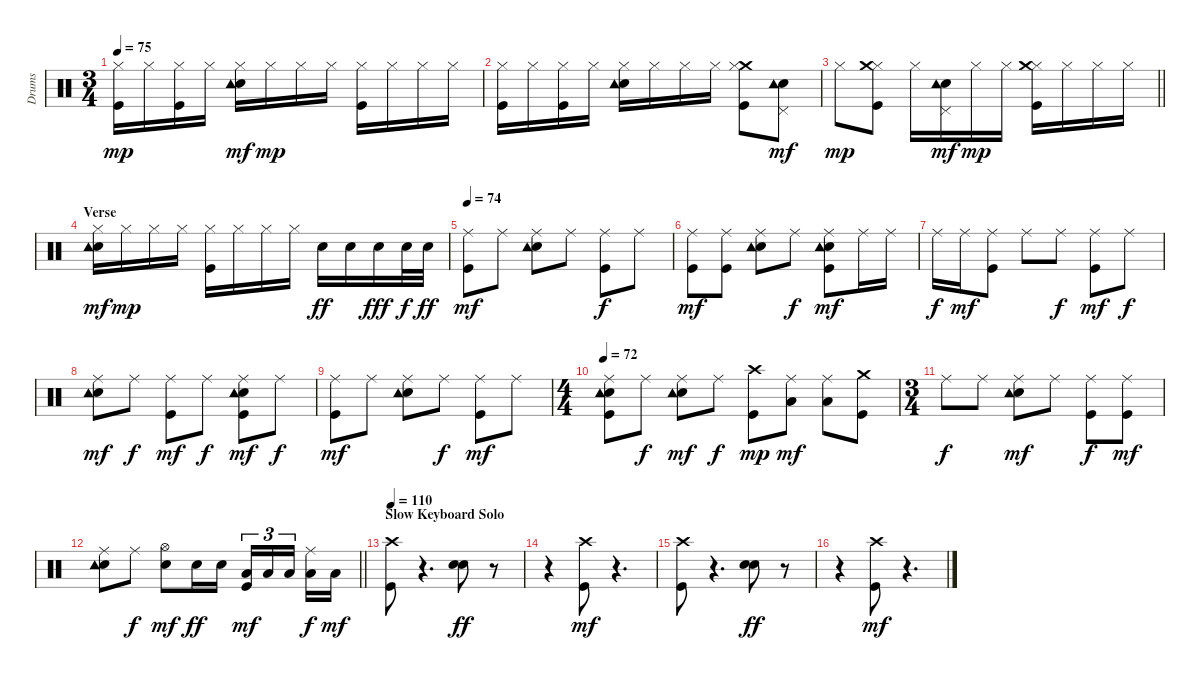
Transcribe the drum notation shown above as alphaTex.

\track ("Drums" "Drums") {instrument percussion}
\staff {score}
\articulation defaults
\ts (3 4)
\tempo 75
\clef neutral
\ks c
("Kick (hit)" "Hi-Hat (closed)").16{dy mp} "Hi-Hat (closed)".16 ("Kick (hit)" "Hi-Hat (closed)").16 "Hi-Hat (closed)".16 ("Electric Snare (hit)" "Hi-Hat (closed)" "Tambourine (hit)").16{dy mf} "Hi-Hat (closed)".16{dy mp} "Hi-Hat (closed)".16 "Hi-Hat (closed)".16 ("Kick (hit)" "Hi-Hat (closed)").16 "Hi-Hat (closed)".16 "Hi-Hat (closed)".16 "Hi-Hat (closed)".16 |
("Kick (hit)" "Hi-Hat (closed)").16 "Hi-Hat (closed)".16 ("Kick (hit)" "Hi-Hat (closed)").16 "Hi-Hat (closed)".16 ("Electric Snare (hit)" "Tambourine (hit)" "Hi-Hat (closed)").16 "Hi-Hat (closed)".16 "Hi-Hat (closed)".16 "Hi-Hat (closed)".16 ("Kick (hit)" "Crash medium (hit)" "Hi-Hat (closed)").8 ("Electric Snare (hit)" "Pedal Hi-Hat (hit)" "Tambourine (hit)").8{dy mf} |
\barLineRight lightlight "Hi-Hat (closed)".8{dy mp}
("Kick (hit)" "Hi-Hat (closed)" "Crash medium (hit)").8 "Hi-Hat (closed)".16 ("Electric Snare (hit)" "Pedal Hi-Hat (hit)" "Tambourine (hit)").16{dy mf} "Hi-Hat (closed)".16{dy mp} "Hi-Hat (closed)".16 ("Kick (hit)" "Hi-Hat (closed)" "Crash medium (hit)").16 "Hi-Hat (closed)".16 "Hi-Hat (closed)".16 "Hi-Hat (closed)".16 |
\section ("" "Verse")
("Electric Snare (hit)" "Hi-Hat (closed)" "Tambourine (hit)").16{dy mf} "Hi-Hat (closed)".16{dy mp} "Hi-Hat (closed)".16 "Hi-Hat (closed)".16 ("Kick (hit)" "Hi-Hat (closed)").16 "Hi-Hat (closed)".16 "Hi-Hat (closed)".16 "Hi-Hat (closed)".16 "Electric Snare (hit)".16{dy ff} "Electric Snare (hit)".16 "Electric Snare (hit)".16{dy fff} "Electric Snare (hit)".32{dy f} "Electric Snare (hit)".32{dy ff} |
\tempo 74
("Kick (hit)" "Ride (middle)").8{dy mf} "Ride (middle)".8 ("Electric Snare (hit)" "Ride (middle)" "Tambourine (hit)").8 "Ride (middle)".8 ("Kick (hit)" "Ride (middle)").8{dy f} "Ride (middle)".8 |
("Kick (hit)" "Ride (middle)").8{dy mf} ("Kick (hit)" "Ride (middle)").8 ("Electric Snare (hit)" "Ride (middle)" "Tambourine (hit)").8 "Ride (middle)".8{dy f} ("Kick (hit)" "Electric Snare (hit)" "Ride (middle)" "Tambourine (hit)").8{dy mf} "Ride (middle)".16 "Ride (middle)".16 |
"Ride (middle)".16{dy f} "Ride (middle)".16{dy mf} ("Kick (hit)" "Ride (middle)").8 "Ride (middle)".8 "Ride (middle)".8{dy f} ("Kick (hit)" "Ride (middle)").8{dy mf} "Ride (middle)".8{dy f} |
("Electric Snare (hit)" "Ride (middle)" "Tambourine (hit)").8{dy mf} "Ride (middle)".8{dy f} ("Kick (hit)" "Ride (middle)").8{dy mf} "Ride (middle)".8{dy f} ("Kick (hit)" "Electric Snare (hit)" "Ride (middle)" "Tambourine (hit)").8{dy mf} "Ride (middle)".8{dy f} |
("Kick (hit)" "Ride (middle)").8{dy mf} "Ride (middle)".8 ("Electric Snare (hit)" "Ride (middle)" "Tambourine (hit)").8 "Ride (middle)".8{dy f} ("Kick (hit)" "Ride (middle)").8{dy mf} "Ride (middle)".8 |
\ts (4 4)
\tempo 72
("Kick (hit)" "Electric Snare (hit)" "Ride (middle)" "Tambourine (hit)").8 "Ride (middle)".8{dy f} ("Electric Snare (hit)" "Ride (middle)" "Tambourine (hit)").8{dy mf} "Ride (middle)".8{dy f} ("Kick (hit)" "Crash high (hit)").8{dy mp} ("Low Floor Tom (hit)" "Ride (middle)").8{dy mf} ("Low Floor Tom (hit)" "Ride (middle)").8 ("Kick (hit)" "Crash medium (hit)").8 |
\ts (3 4)
"Ride (middle)".8{dy f} "Ride (middle)".8 ("Electric Snare (hit)" "Ride (middle)" "Tambourine (hit)").8{dy mf} "Ride (middle)".8 ("Kick (hit)" "Ride (middle)").8{dy f} ("Kick (hit)" "Ride (middle)").8{dy mf} |
\barLineRight lightlight
("Electric Snare (hit)" "Ride (middle)" "Tambourine (hit)").8 "Ride (middle)".8{dy f} ("Electric Snare (hit)" "Hi-Hat (open)").8{dy mf} "Electric Snare (hit)".16{dy ff} "Electric Snare (hit)".16 ("Kick (hit)" "Low Tom (hit)").16{tu (3 2) dy mf} "Low Tom (hit)".16{tu (3 2)} "Low Tom (hit)".16{tu (3 2) beam splitsecondary} ("Low Floor Tom (hit)" "Ride (middle)").16{dy f} "Low Floor Tom (hit)".16{dy mf} |
\section ("" "Slow Keyboard Solo")
\tempo 110
("Kick (hit)" "Crash high (hit)").8 r.4{d} ("Snare (hit) 2" "Electric Snare (hit)").8{dy ff} r.8 |
r.4 ("Kick (hit)" "Crash high (hit)").8{dy mf} r.4{d} |
("Kick (hit)" "Crash high (hit)").8 r.4{d} ("Snare (hit) 2" "Electric Snare (hit)").8{dy ff} r.8 |
r.4 ("Kick (hit)" "Crash high (hit)").8{dy mf} r.4{d}
